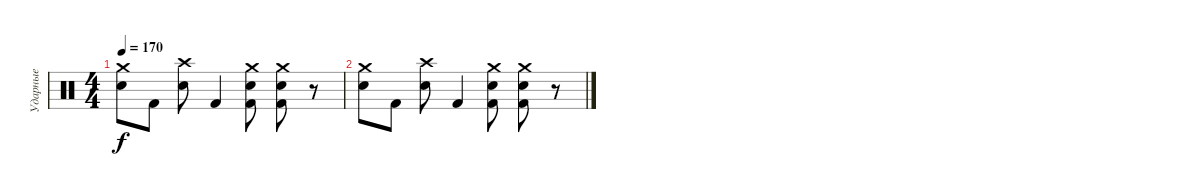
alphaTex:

\track ("Ударные" "Ударные") {instrument percussion}
\staff {score}
\articulation defaults
\ts (4 4)
\tempo 170
\clef neutral
\ks c
("Crash medium (hit)" "Snare (hit) 2").8{dy f} "Kick (hit) 2".8 ("Crash high (hit)" "Snare (hit) 2").8 "Kick (hit) 2".4 ("Crash medium (hit)" "Kick (hit) 2" "Snare (hit) 2").8 ("Crash medium (hit)" "Kick (hit) 2" "Snare (hit) 2").8 r.8 |
("Crash medium (hit)" "Snare (hit) 2").8 "Kick (hit) 2".8 ("Crash high (hit)" "Snare (hit) 2").8 "Kick (hit) 2".4 ("Crash medium (hit)" "Kick (hit) 2" "Snare (hit) 2").8 ("Crash medium (hit)" "Kick (hit) 2" "Snare (hit) 2").8 r.8
